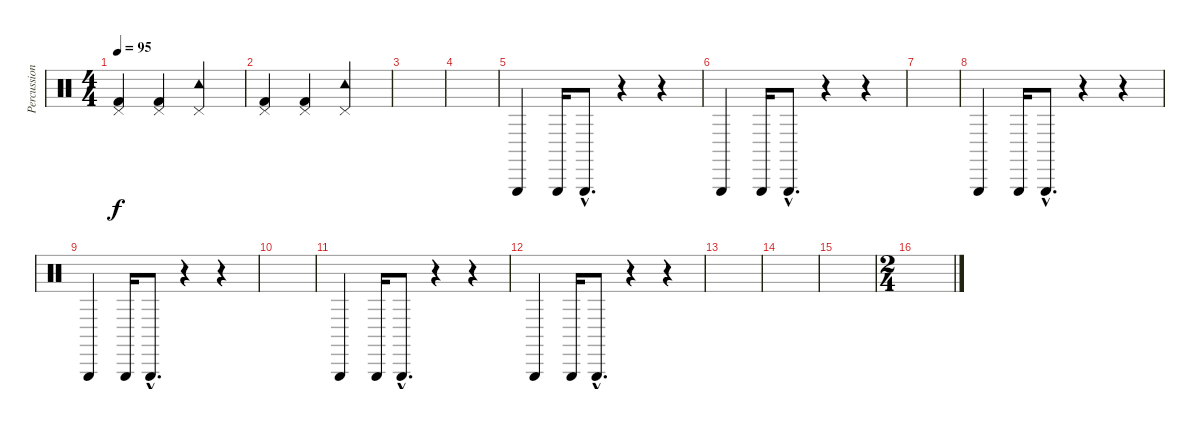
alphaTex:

\track ("Percussions" "Percussion") {instrument percussion}
\staff {score}
\articulation defaults
\ts (4 4)
\tempo 95
\clef neutral
\ks c
("Kick (hit) 2" "Pedal Hi-Hat (hit)").4{dy f} ("Kick (hit) 2" "Pedal Hi-Hat (hit)").4 ("Tambourine (hit)" "Pedal Hi-Hat (hit)").2 |
("Kick (hit) 2" "Pedal Hi-Hat (hit)").4 ("Kick (hit) 2" "Pedal Hi-Hat (hit)").4 ("Tambourine (hit)" "Pedal Hi-Hat (hit)").2 |
|
|
"Triangle (hit)".4 "Triangle (hit)".16 "Triangle (hit)"{hac}.8{d} r.4 r.4 |
"Triangle (hit)".4 "Triangle (hit)".16 "Triangle (hit)"{hac}.8{d} r.4 r.4 |
|
"Triangle (hit)".4 "Triangle (hit)".16 "Triangle (hit)"{hac}.8{d} r.4 r.4 |
"Triangle (hit)".4 "Triangle (hit)".16 "Triangle (hit)"{hac}.8{d} r.4 r.4 |
|
"Triangle (hit)".4 "Triangle (hit)".16 "Triangle (hit)"{hac}.8{d} r.4 r.4 |
"Triangle (hit)".4 "Triangle (hit)".16 "Triangle (hit)"{hac}.8{d} r.4 r.4 |
|
|
|
\ts (2 4)
